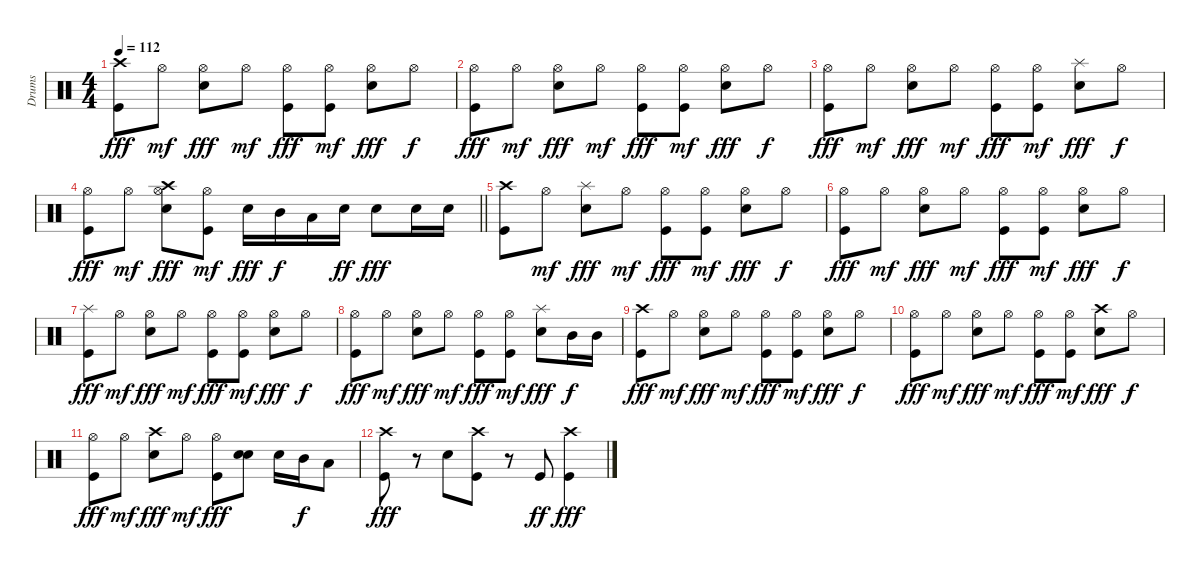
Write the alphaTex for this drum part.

\track ("Drums" "Drums") {instrument percussion}
\staff {score}
\articulation defaults
\ts (4 4)
\tempo 112
\clef neutral
\ks c
("Kick (hit)" "Crash high (hit)").8{dy fff} "Hi-Hat (open)".8{dy mf} ("Snare (hit) 2" "Hi-Hat (open)").8{dy fff} "Hi-Hat (open)".8{dy mf} ("Kick (hit)" "Hi-Hat (open)").8{dy fff} ("Kick (hit)" "Hi-Hat (open)").8{dy mf} ("Snare (hit) 2" "Hi-Hat (open)").8{dy fff} "Hi-Hat (open)".8{dy f} |
("Kick (hit)" "Hi-Hat (open)").8{dy fff} "Hi-Hat (open)".8{dy mf} ("Snare (hit) 2" "Hi-Hat (open)").8{dy fff} "Hi-Hat (open)".8{dy mf} ("Kick (hit)" "Hi-Hat (open)").8{dy fff} ("Kick (hit)" "Hi-Hat (open)").8{dy mf} ("Snare (hit) 2" "Hi-Hat (open)").8{dy fff} "Hi-Hat (open)".8{dy f} |
("Kick (hit)" "Hi-Hat (open)").8{dy fff} "Hi-Hat (open)".8{dy mf} ("Snare (hit) 2" "Hi-Hat (open)").8{dy fff} "Hi-Hat (open)".8{dy mf} ("Kick (hit)" "Hi-Hat (open)").8{dy fff} ("Kick (hit)" "Hi-Hat (open)").8{dy mf} ("Snare (hit) 2" "Splash (hit)").8{dy fff} "Hi-Hat (open)".8{dy f} |
\barLineRight lightlight
("Kick (hit)" "Hi-Hat (open)").8{dy fff} "Hi-Hat (open)".8{dy mf} ("Snare (hit) 2" "Hi-Hat (open)" "Crash high (hit)").8{dy fff} ("Kick (hit)" "Hi-Hat (open)").8{dy mf} "Snare (hit) 2".16{dy fff} "Mid Tom (hit)".16{dy f} "Low Tom (hit)".16 "Snare (hit) 2".16{dy ff} "Snare (hit) 2".8{dy fff} "Snare (hit) 2".16 "Snare (hit) 2".16 |
("Kick (hit)" "Crash high (hit)").8 "Hi-Hat (open)".8{dy mf} ("Snare (hit) 2" "Splash (hit)").8{dy fff} "Hi-Hat (open)".8{dy mf} ("Kick (hit)" "Hi-Hat (open)").8{dy fff} ("Kick (hit)" "Hi-Hat (open)").8{dy mf} ("Snare (hit) 2" "Hi-Hat (open)").8{dy fff} "Hi-Hat (open)".8{dy f} |
("Kick (hit)" "Hi-Hat (open)").8{dy fff} "Hi-Hat (open)".8{dy mf} ("Snare (hit) 2" "Hi-Hat (open)").8{dy fff} "Hi-Hat (open)".8{dy mf} ("Kick (hit)" "Hi-Hat (open)").8{dy fff} ("Kick (hit)" "Hi-Hat (open)").8{dy mf} ("Snare (hit) 2" "Hi-Hat (open)").8{dy fff} "Hi-Hat (open)".8{dy f} |
("Kick (hit)" "Splash (hit)").8{dy fff} "Hi-Hat (open)".8{dy mf} ("Snare (hit) 2" "Hi-Hat (open)").8{dy fff} "Hi-Hat (open)".8{dy mf} ("Kick (hit)" "Hi-Hat (open)").8{dy fff} ("Kick (hit)" "Hi-Hat (open)").8{dy mf} ("Snare (hit) 2" "Hi-Hat (open)").8{dy fff} "Hi-Hat (open)".8{dy f} |
("Kick (hit)" "Hi-Hat (open)").8{dy fff} "Hi-Hat (open)".8{dy mf} ("Snare (hit) 2" "Hi-Hat (open)").8{dy fff} "Hi-Hat (open)".8{dy mf} ("Kick (hit)" "Hi-Hat (open)").8{dy fff} ("Kick (hit)" "Hi-Hat (open)").8{dy mf} ("Snare (hit) 2" "Splash (hit)").8{dy fff} "Mid Tom (hit)".16{dy f} "Mid Tom (hit)".16 |
("Kick (hit)" "Crash high (hit)").8{dy fff} "Hi-Hat (open)".8{dy mf} ("Snare (hit) 2" "Hi-Hat (open)").8{dy fff} "Hi-Hat (open)".8{dy mf} ("Kick (hit)" "Hi-Hat (open)").8{dy fff} ("Kick (hit)" "Hi-Hat (open)").8{dy mf} ("Snare (hit) 2" "Hi-Hat (open)").8{dy fff} "Hi-Hat (open)".8{dy f} |
("Kick (hit)" "Hi-Hat (open)").8{dy fff} "Hi-Hat (open)".8{dy mf} ("Snare (hit) 2" "Hi-Hat (open)").8{dy fff} "Hi-Hat (open)".8{dy mf} ("Kick (hit)" "Hi-Hat (open)").8{dy fff} ("Kick (hit)" "Hi-Hat (open)").8{dy mf} ("Snare (hit) 2" "Crash high (hit)").8{dy fff} "Hi-Hat (open)".8{dy f} |
("Kick (hit)" "Hi-Hat (open)").8{dy fff} "Hi-Hat (open)".8{dy mf} ("Snare (hit) 2" "Crash high (hit)").8{dy fff} "Hi-Hat (open)".8{dy mf} ("Kick (hit)" "Hi-Hat (open)").8{dy fff} ("Snare (hit) 2" "Snare (hit) 2").8 "Snare (hit) 2".16 "Mid Tom (hit)".16{dy f} "Low Tom (hit)".8 |
("Kick (hit)" "Crash high (hit)").8{dy fff} r.8 "Snare (hit) 2".8 ("Kick (hit)" "Crash high (hit)").8 r.8 "Kick (hit)".8{dy ff} ("Kick (hit)" "Crash high (hit)").4{dy fff}
